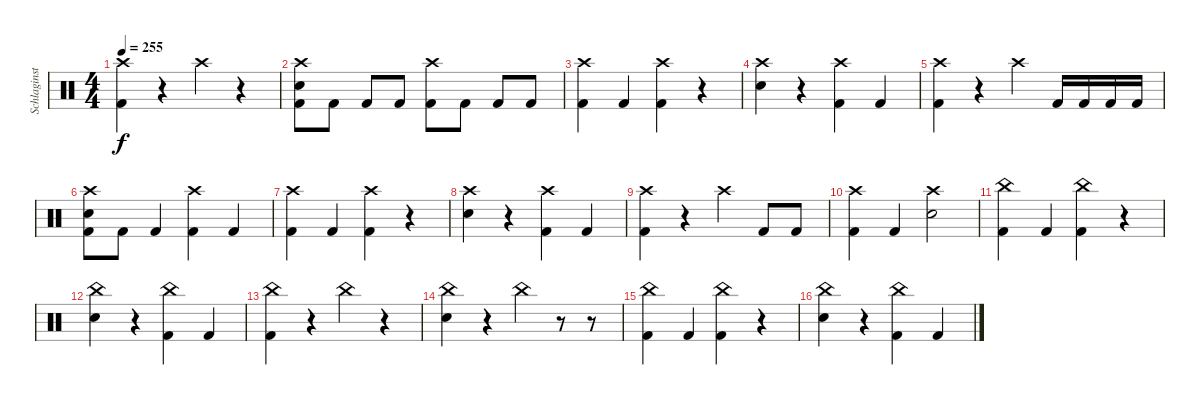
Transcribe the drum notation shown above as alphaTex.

\track ("Schlaginstrumente - Auswahl" "Schlaginst") {instrument percussion}
\staff {score}
\articulation defaults
\ts (4 4)
\tempo 255
\clef neutral
\ks c
("Crash high (hit)" "Kick (hit) 2").4{dy f} r.4 "Crash high (hit)".4 r.4 |
("Crash high (hit)" "Electric Snare (hit)" "Kick (hit) 2").8 "Kick (hit) 2".8 "Kick (hit) 2".8 "Kick (hit) 2".8 ("Crash high (hit)" "Kick (hit) 2").8 "Kick (hit) 2".8 "Kick (hit) 2".8 "Kick (hit) 2".8 |
("Crash high (hit)" "Kick (hit) 2").4 "Kick (hit) 2".4 ("Crash high (hit)" "Kick (hit) 2").4 r.4 |
("Crash high (hit)" "Electric Snare (hit)").4 r.4 ("Crash high (hit)" "Kick (hit) 2").4 "Kick (hit) 2".4 |
("Crash high (hit)" "Kick (hit) 2").4 r.4 "Crash high (hit)".4 "Kick (hit) 2".16 "Kick (hit) 2".16 "Kick (hit) 2".16 "Kick (hit) 2".16 |
("Crash high (hit)" "Electric Snare (hit)" "Kick (hit) 2").8 "Kick (hit) 2".8 "Kick (hit) 2".4 ("Crash high (hit)" "Kick (hit) 2").4 "Kick (hit) 2".4 |
("Crash high (hit)" "Kick (hit) 2").4 "Kick (hit) 2".4 ("Crash high (hit)" "Kick (hit) 2").4 r.4 |
("Crash high (hit)" "Electric Snare (hit)").4 r.4 ("Crash high (hit)" "Kick (hit) 2").4 "Kick (hit) 2".4 |
("Crash high (hit)" "Kick (hit) 2").4 r.4 "Crash high (hit)".4 "Kick (hit) 2".8 "Kick (hit) 2".8 |
("Crash high (hit)" "Kick (hit) 2").4 "Kick (hit) 2".4 ("Crash high (hit)" "Electric Snare (hit)").2 |
("China (hit)" "Kick (hit) 2").4 "Kick (hit) 2".4 ("China (hit)" "Kick (hit) 2").4 r.4 |
("China (hit)" "Electric Snare (hit)").4 r.4 ("China (hit)" "Kick (hit) 2").4 "Kick (hit) 2".4 |
("China (hit)" "Kick (hit) 2").4 r.4 "China (hit)".4 r.4 |
("China (hit)" "Electric Snare (hit)").4 r.4 "China (hit)".4 r.8 r.8 |
("China (hit)" "Kick (hit) 2").4 "Kick (hit) 2".4 ("China (hit)" "Kick (hit) 2").4 r.4 |
("China (hit)" "Electric Snare (hit)").4 r.4 ("China (hit)" "Kick (hit) 2").4 "Kick (hit) 2".4
